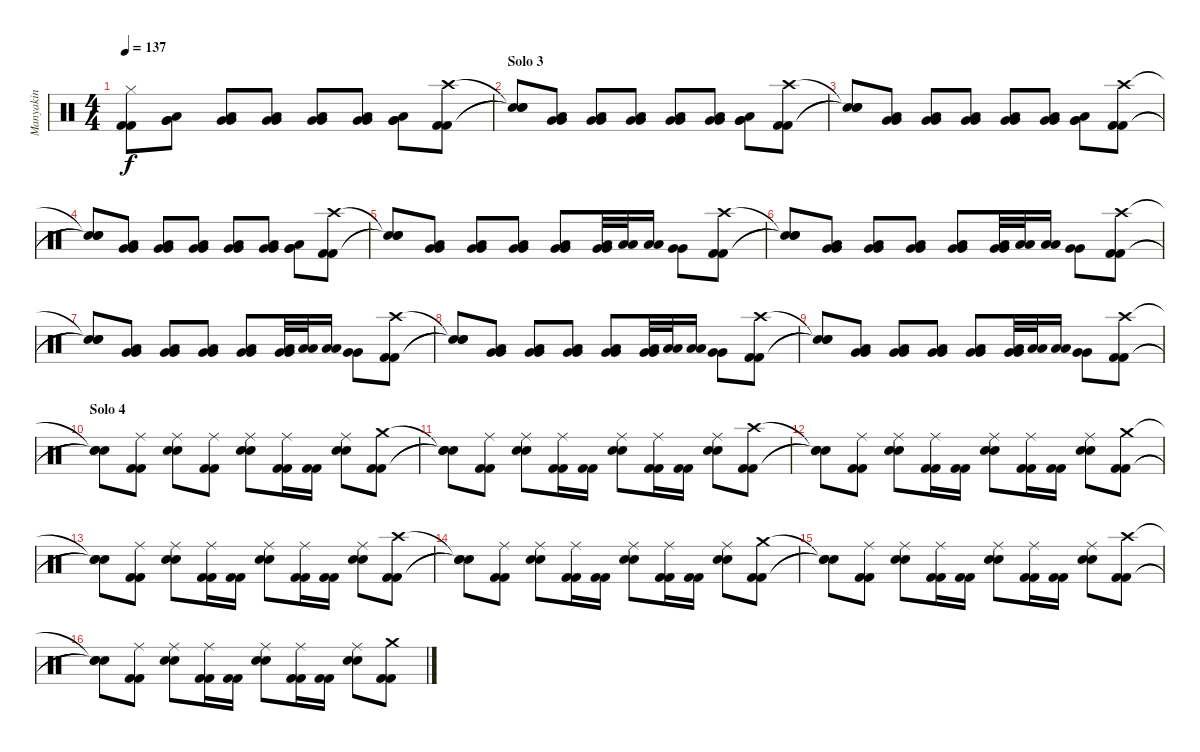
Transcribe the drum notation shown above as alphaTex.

\track ("Manyakin" "Manyakin") {instrument percussion}
\staff {score}
\articulation defaults
\ts (4 4)
\tempo 137
\clef neutral
\ks c
("Hi-Hat (closed)" "Kick (hit) 2" "Kick (hit) 2").8{dy f} ("Low Tom (hit)" "Very Low Tom (hit)" "Very Low Tom (hit)").8 ("Low Tom (hit)" "Very Low Tom (hit)" "Very Low Tom (hit)").8 ("Low Tom (hit)" "Very Low Tom (hit)" "Very Low Tom (hit)").8 ("Low Tom (hit)" "Very Low Tom (hit)" "Very Low Tom (hit)").8 ("Low Tom (hit)" "Very Low Tom (hit)" "Very Low Tom (hit)").8 ("Low Tom (hit)" "Very Low Tom (hit)" "Very Low Tom (hit)").8 ("Crash high (hit)" "Kick (hit) 2" "Kick (hit) 2").8 |
\section ("" "Solo 3")
("Snare (hit)"{t} "Snare (hit)"{t} "Snare (hit)"{t}).8 ("Low Tom (hit)" "Very Low Tom (hit)" "Very Low Tom (hit)").8 ("Low Tom (hit)" "Very Low Tom (hit)" "Very Low Tom (hit)").8 ("Low Tom (hit)" "Very Low Tom (hit)" "Very Low Tom (hit)").8 ("Low Tom (hit)" "Very Low Tom (hit)" "Very Low Tom (hit)").8 ("Low Tom (hit)" "Very Low Tom (hit)" "Very Low Tom (hit)").8 ("Low Tom (hit)" "Very Low Tom (hit)" "Very Low Tom (hit)").8 ("Crash high (hit)" "Kick (hit) 2" "Kick (hit) 2").8 |
("Snare (hit)"{t} "Snare (hit)"{t} "Snare (hit)"{t}).8 ("Low Tom (hit)" "Very Low Tom (hit)" "Very Low Tom (hit)").8 ("Low Tom (hit)" "Very Low Tom (hit)" "Very Low Tom (hit)").8 ("Low Tom (hit)" "Very Low Tom (hit)" "Very Low Tom (hit)").8 ("Low Tom (hit)" "Very Low Tom (hit)" "Very Low Tom (hit)").8 ("Low Tom (hit)" "Very Low Tom (hit)" "Very Low Tom (hit)").8 ("Low Tom (hit)" "Very Low Tom (hit)" "Very Low Tom (hit)").8 ("Crash high (hit)" "Kick (hit) 2" "Kick (hit) 2").8 |
("Snare (hit)"{t} "Snare (hit)"{t} "Snare (hit)"{t}).8 ("Low Tom (hit)" "Very Low Tom (hit)" "Very Low Tom (hit)").8 ("Low Tom (hit)" "Very Low Tom (hit)" "Very Low Tom (hit)").8 ("Low Tom (hit)" "Very Low Tom (hit)" "Very Low Tom (hit)").8 ("Low Tom (hit)" "Very Low Tom (hit)" "Very Low Tom (hit)").8 ("Low Tom (hit)" "Very Low Tom (hit)" "Very Low Tom (hit)").8 ("Low Tom (hit)" "Very Low Tom (hit)" "Very Low Tom (hit)").8 ("Crash high (hit)" "Kick (hit) 2" "Kick (hit) 2").8 |
("Snare (hit)"{t} "Snare (hit)"{t} "Snare (hit)"{t}).8 ("Low Tom (hit)" "Very Low Tom (hit)" "Very Low Tom (hit)").8 ("Low Tom (hit)" "Very Low Tom (hit)" "Very Low Tom (hit)").8 ("Low Tom (hit)" "Very Low Tom (hit)" "Very Low Tom (hit)").8 ("Low Tom (hit)" "Very Low Tom (hit)" "Very Low Tom (hit)").8 ("Low Tom (hit)" "Very Low Tom (hit)" "Very Low Tom (hit)").32 ("Low Tom (hit)" "Low Tom (hit)").32 ("Low Tom (hit)" "Low Tom (hit)").16 ("Very Low Tom (hit)" "Very Low Tom (hit)").8 ("Crash high (hit)" "Kick (hit) 2" "Kick (hit) 2").8 |
("Snare (hit)"{t} "Snare (hit)"{t} "Snare (hit)"{t}).8 ("Low Tom (hit)" "Very Low Tom (hit)" "Very Low Tom (hit)").8 ("Low Tom (hit)" "Very Low Tom (hit)" "Very Low Tom (hit)").8 ("Low Tom (hit)" "Very Low Tom (hit)" "Very Low Tom (hit)").8 ("Low Tom (hit)" "Very Low Tom (hit)" "Very Low Tom (hit)").8 ("Low Tom (hit)" "Very Low Tom (hit)" "Very Low Tom (hit)").32 ("Low Tom (hit)" "Low Tom (hit)").32 ("Low Tom (hit)" "Low Tom (hit)").16 ("Very Low Tom (hit)" "Very Low Tom (hit)").8 ("Crash high (hit)" "Kick (hit) 2" "Kick (hit) 2").8 |
("Snare (hit)"{t} "Snare (hit)"{t} "Snare (hit)"{t}).8 ("Low Tom (hit)" "Very Low Tom (hit)" "Very Low Tom (hit)").8 ("Low Tom (hit)" "Very Low Tom (hit)" "Very Low Tom (hit)").8 ("Low Tom (hit)" "Very Low Tom (hit)" "Very Low Tom (hit)").8 ("Low Tom (hit)" "Very Low Tom (hit)" "Very Low Tom (hit)").8 ("Low Tom (hit)" "Very Low Tom (hit)" "Very Low Tom (hit)").32 ("Low Tom (hit)" "Low Tom (hit)").32 ("Low Tom (hit)" "Low Tom (hit)").16 ("Very Low Tom (hit)" "Very Low Tom (hit)").8 ("Crash high (hit)" "Kick (hit) 2" "Kick (hit) 2").8 |
("Snare (hit)"{t} "Snare (hit)"{t} "Snare (hit)"{t}).8 ("Low Tom (hit)" "Very Low Tom (hit)" "Very Low Tom (hit)").8 ("Low Tom (hit)" "Very Low Tom (hit)" "Very Low Tom (hit)").8 ("Low Tom (hit)" "Very Low Tom (hit)" "Very Low Tom (hit)").8 ("Low Tom (hit)" "Very Low Tom (hit)" "Very Low Tom (hit)").8 ("Low Tom (hit)" "Very Low Tom (hit)" "Very Low Tom (hit)").32 ("Low Tom (hit)" "Low Tom (hit)").32 ("Low Tom (hit)" "Low Tom (hit)").16 ("Very Low Tom (hit)" "Very Low Tom (hit)").8 ("Crash high (hit)" "Kick (hit) 2" "Kick (hit) 2").8 |
("Snare (hit)"{t} "Snare (hit)"{t} "Snare (hit)"{t}).8 ("Low Tom (hit)" "Very Low Tom (hit)" "Very Low Tom (hit)").8 ("Low Tom (hit)" "Very Low Tom (hit)" "Very Low Tom (hit)").8 ("Low Tom (hit)" "Very Low Tom (hit)" "Very Low Tom (hit)").8 ("Low Tom (hit)" "Very Low Tom (hit)" "Very Low Tom (hit)").8 ("Low Tom (hit)" "Very Low Tom (hit)" "Very Low Tom (hit)").32 ("Low Tom (hit)" "Low Tom (hit)").32 ("Low Tom (hit)" "Low Tom (hit)").16 ("Very Low Tom (hit)" "Very Low Tom (hit)").8 ("Crash high (hit)" "Kick (hit) 2" "Kick (hit) 2").8 |
\section ("" "Solo 4")
("Snare (hit)"{t} "Snare (hit)"{t} "Snare (hit)"{t}).8 ("Ride (middle)" "Kick (hit) 2" "Kick (hit) 2").8 ("Ride (middle)" "Electric Snare (hit)" "Electric Snare (hit)").8 ("Ride (middle)" "Kick (hit) 2" "Kick (hit) 2").8 ("Ride (middle)" "Electric Snare (hit)" "Electric Snare (hit)").8 ("Ride (middle)" "Kick (hit) 2" "Kick (hit) 2").16 ("Kick (hit) 2" "Kick (hit) 2").16 ("Ride (middle)" "Electric Snare (hit)" "Electric Snare (hit)").8 ("Crash medium (hit)" "Kick (hit) 2" "Kick (hit) 2").8 |
("Snare (hit)"{t} "Snare (hit)"{t} "Snare (hit)"{t}).8 ("Ride (middle)" "Kick (hit) 2" "Kick (hit) 2").8 ("Ride (middle)" "Electric Snare (hit)" "Electric Snare (hit)").8 ("Ride (middle)" "Kick (hit) 2" "Kick (hit) 2").16 ("Kick (hit) 2" "Kick (hit) 2").16 ("Ride (middle)" "Electric Snare (hit)" "Electric Snare (hit)").8 ("Ride (middle)" "Kick (hit) 2" "Kick (hit) 2").16 ("Kick (hit) 2" "Kick (hit) 2").16 ("Ride (middle)" "Electric Snare (hit)" "Electric Snare (hit)").8 ("Crash high (hit)" "Kick (hit) 2" "Kick (hit) 2").8 |
("Snare (hit)"{t} "Snare (hit)"{t} "Snare (hit)"{t}).8 ("Ride (middle)" "Kick (hit) 2" "Kick (hit) 2").8 ("Ride (middle)" "Electric Snare (hit)" "Electric Snare (hit)").8 ("Ride (middle)" "Kick (hit) 2" "Kick (hit) 2").16 ("Kick (hit) 2" "Kick (hit) 2").16 ("Ride (middle)" "Electric Snare (hit)" "Electric Snare (hit)").8 ("Ride (middle)" "Kick (hit) 2" "Kick (hit) 2").16 ("Kick (hit) 2" "Kick (hit) 2").16 ("Ride (middle)" "Electric Snare (hit)" "Electric Snare (hit)").8 ("Crash medium (hit)" "Kick (hit) 2" "Kick (hit) 2").8 |
("Snare (hit)"{t} "Snare (hit)"{t} "Snare (hit)"{t}).8 ("Ride (middle)" "Kick (hit) 2" "Kick (hit) 2").8 ("Ride (middle)" "Electric Snare (hit)" "Electric Snare (hit)").8 ("Ride (middle)" "Kick (hit) 2" "Kick (hit) 2").16 ("Kick (hit) 2" "Kick (hit) 2").16 ("Ride (middle)" "Electric Snare (hit)" "Electric Snare (hit)").8 ("Ride (middle)" "Kick (hit) 2" "Kick (hit) 2").16 ("Kick (hit) 2" "Kick (hit) 2").16 ("Ride (middle)" "Electric Snare (hit)" "Electric Snare (hit)").8 ("Crash high (hit)" "Kick (hit) 2" "Kick (hit) 2").8 |
("Snare (hit)"{t} "Snare (hit)"{t} "Snare (hit)"{t}).8 ("Ride (middle)" "Kick (hit) 2" "Kick (hit) 2").8 ("Ride (middle)" "Electric Snare (hit)" "Electric Snare (hit)").8 ("Ride (middle)" "Kick (hit) 2" "Kick (hit) 2").16 ("Kick (hit) 2" "Kick (hit) 2").16 ("Ride (middle)" "Electric Snare (hit)" "Electric Snare (hit)").8 ("Ride (middle)" "Kick (hit) 2" "Kick (hit) 2").16 ("Kick (hit) 2" "Kick (hit) 2").16 ("Ride (middle)" "Electric Snare (hit)" "Electric Snare (hit)").8 ("Crash medium (hit)" "Kick (hit) 2" "Kick (hit) 2").8 |
("Snare (hit)"{t} "Snare (hit)"{t} "Snare (hit)"{t}).8 ("Ride (middle)" "Kick (hit) 2" "Kick (hit) 2").8 ("Ride (middle)" "Electric Snare (hit)" "Electric Snare (hit)").8 ("Ride (middle)" "Kick (hit) 2" "Kick (hit) 2").16 ("Kick (hit) 2" "Kick (hit) 2").16 ("Ride (middle)" "Electric Snare (hit)" "Electric Snare (hit)").8 ("Ride (middle)" "Kick (hit) 2" "Kick (hit) 2").16 ("Kick (hit) 2" "Kick (hit) 2").16 ("Ride (middle)" "Electric Snare (hit)" "Electric Snare (hit)").8 ("Crash high (hit)" "Kick (hit) 2" "Kick (hit) 2").8 |
("Snare (hit)"{t} "Snare (hit)"{t} "Snare (hit)"{t}).8 ("Ride (middle)" "Kick (hit) 2" "Kick (hit) 2").8 ("Ride (middle)" "Electric Snare (hit)" "Electric Snare (hit)").8 ("Ride (middle)" "Kick (hit) 2" "Kick (hit) 2").16 ("Kick (hit) 2" "Kick (hit) 2").16 ("Ride (middle)" "Electric Snare (hit)" "Electric Snare (hit)").8 ("Ride (middle)" "Kick (hit) 2" "Kick (hit) 2").16 ("Kick (hit) 2" "Kick (hit) 2").16 ("Ride (middle)" "Electric Snare (hit)" "Electric Snare (hit)").8 ("Crash medium (hit)" "Kick (hit) 2" "Kick (hit) 2").8
